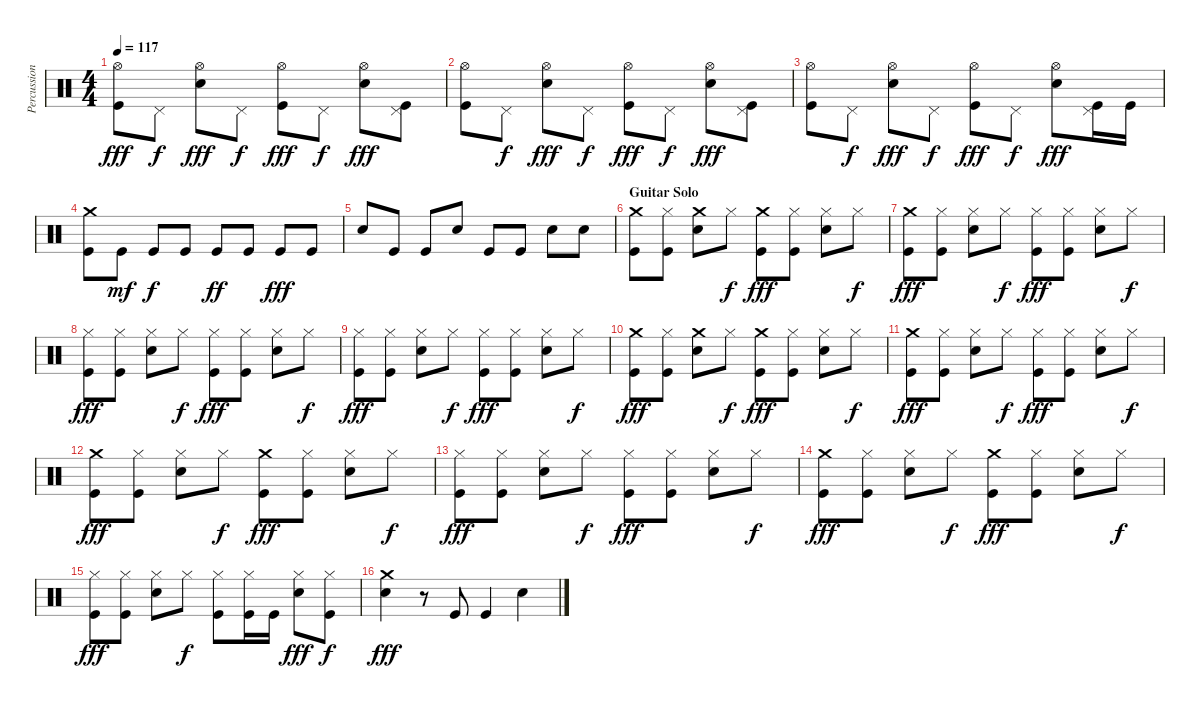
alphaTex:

\track ("Percussion" "Percussion") {instrument percussion}
\staff {score}
\articulation defaults
\ts (4 4)
\tempo 117
\clef neutral
\ks c
("Kick (hit)" "Hi-Hat (open)").8{dy fff} "Pedal Hi-Hat (hit)".8{dy f} ("Snare (hit) 2" "Hi-Hat (open)").8{dy fff} "Pedal Hi-Hat (hit)".8{dy f} ("Kick (hit)" "Hi-Hat (open)").8{dy fff} "Pedal Hi-Hat (hit)".8{dy f} ("Snare (hit) 2" "Hi-Hat (open)").8{dy fff} ("Kick (hit)" "Pedal Hi-Hat (hit)").8 |
("Kick (hit)" "Hi-Hat (open)").8 "Pedal Hi-Hat (hit)".8{dy f} ("Snare (hit) 2" "Hi-Hat (open)").8{dy fff} "Pedal Hi-Hat (hit)".8{dy f} ("Kick (hit)" "Hi-Hat (open)").8{dy fff} "Pedal Hi-Hat (hit)".8{dy f} ("Snare (hit) 2" "Hi-Hat (open)").8{dy fff} ("Kick (hit)" "Pedal Hi-Hat (hit)").8 |
("Kick (hit)" "Hi-Hat (open)").8 "Pedal Hi-Hat (hit)".8{dy f} ("Snare (hit) 2" "Hi-Hat (open)").8{dy fff} "Pedal Hi-Hat (hit)".8{dy f} ("Kick (hit)" "Hi-Hat (open)").8{dy fff} "Pedal Hi-Hat (hit)".8{dy f} ("Snare (hit) 2" "Hi-Hat (open)").8{dy fff} ("Kick (hit)" "Pedal Hi-Hat (hit)").16 "Kick (hit)".16 |
("Kick (hit)" "Crash medium (hit)").8 "Kick (hit)".8{dy mf} "Kick (hit)".8{dy f} "Kick (hit)".8 "Kick (hit)".8{dy ff} "Kick (hit)".8 "Kick (hit)".8{dy fff} "Kick (hit)".8 |
"Snare (hit) 2".8 "Kick (hit)".8 "Kick (hit)".8 "Snare (hit) 2".8 "Kick (hit)".8 "Kick (hit)".8 "Snare (hit) 2".8 "Snare (hit) 2".8 |
\section ("" "Guitar Solo")
("Kick (hit)" "Crash medium (hit)").8 ("Kick (hit)" "Hi-Hat (closed)").8 ("Snare (hit) 2" "Crash medium (hit)").8 "Hi-Hat (closed)".8{dy f} ("Kick (hit)" "Crash medium (hit)").8{dy fff} ("Kick (hit)" "Hi-Hat (closed)").8 ("Snare (hit) 2" "Hi-Hat (closed)").8 "Hi-Hat (closed)".8{dy f} |
("Kick (hit)" "Crash medium (hit)").8{dy fff} ("Kick (hit)" "Hi-Hat (closed)").8 ("Snare (hit) 2" "Hi-Hat (closed)").8 "Hi-Hat (closed)".8{dy f} ("Kick (hit)" "Hi-Hat (closed)").8{dy fff} ("Kick (hit)" "Hi-Hat (closed)").8 ("Snare (hit) 2" "Hi-Hat (closed)").8 "Hi-Hat (closed)".8{dy f} |
("Kick (hit)" "Hi-Hat (closed)").8{dy fff} ("Kick (hit)" "Hi-Hat (closed)").8 ("Snare (hit) 2" "Hi-Hat (closed)").8 "Hi-Hat (closed)".8{dy f} ("Kick (hit)" "Hi-Hat (closed)").8{dy fff} ("Kick (hit)" "Hi-Hat (closed)").8 ("Snare (hit) 2" "Hi-Hat (closed)").8 "Hi-Hat (closed)".8{dy f} |
("Kick (hit)" "Hi-Hat (closed)").8{dy fff} ("Kick (hit)" "Hi-Hat (closed)").8 ("Snare (hit) 2" "Hi-Hat (closed)").8 "Hi-Hat (closed)".8{dy f} ("Kick (hit)" "Hi-Hat (closed)").8{dy fff} ("Kick (hit)" "Hi-Hat (closed)").8 ("Snare (hit) 2" "Hi-Hat (closed)").8 "Hi-Hat (closed)".8{dy f} |
("Kick (hit)" "Crash medium (hit)").8{dy fff} ("Kick (hit)" "Hi-Hat (closed)").8 ("Snare (hit) 2" "Crash medium (hit)").8 "Hi-Hat (closed)".8{dy f} ("Kick (hit)" "Crash medium (hit)").8{dy fff} ("Kick (hit)" "Hi-Hat (closed)").8 ("Snare (hit) 2" "Hi-Hat (closed)").8 "Hi-Hat (closed)".8{dy f} |
("Kick (hit)" "Crash medium (hit)").8{dy fff} ("Kick (hit)" "Hi-Hat (closed)").8 ("Snare (hit) 2" "Hi-Hat (closed)").8 "Hi-Hat (closed)".8{dy f} ("Kick (hit)" "Hi-Hat (closed)").8{dy fff} ("Kick (hit)" "Hi-Hat (closed)").8 ("Snare (hit) 2" "Hi-Hat (closed)").8 "Hi-Hat (closed)".8{dy f} |
("Kick (hit)" "Crash medium (hit)").8{dy fff} ("Kick (hit)" "Hi-Hat (closed)").8 ("Snare (hit) 2" "Hi-Hat (closed)").8 "Hi-Hat (closed)".8{dy f} ("Kick (hit)" "Crash medium (hit)").8{dy fff} ("Kick (hit)" "Hi-Hat (closed)").8 ("Snare (hit) 2" "Hi-Hat (closed)").8 "Hi-Hat (closed)".8{dy f} |
("Kick (hit)" "Hi-Hat (closed)").8{dy fff} ("Kick (hit)" "Hi-Hat (closed)").8 ("Snare (hit) 2" "Hi-Hat (closed)").8 "Hi-Hat (closed)".8{dy f} ("Kick (hit)" "Hi-Hat (closed)").8{dy fff} ("Kick (hit)" "Hi-Hat (closed)").8 ("Snare (hit) 2" "Hi-Hat (closed)").8 "Hi-Hat (closed)".8{dy f} |
("Kick (hit)" "Crash medium (hit)").8{dy fff} ("Kick (hit)" "Hi-Hat (closed)").8 ("Snare (hit) 2" "Hi-Hat (closed)").8 "Hi-Hat (closed)".8{dy f} ("Kick (hit)" "Crash medium (hit)").8{dy fff} ("Kick (hit)" "Hi-Hat (closed)").8 ("Snare (hit) 2" "Hi-Hat (closed)").8 "Hi-Hat (closed)".8{dy f} |
("Kick (hit)" "Hi-Hat (closed)").8{dy fff} ("Kick (hit)" "Hi-Hat (closed)").8 ("Snare (hit) 2" "Hi-Hat (closed)").8 "Hi-Hat (closed)".8{dy f} ("Kick (hit)" "Hi-Hat (closed)").8 ("Kick (hit)" "Hi-Hat (closed)").16 "Kick (hit)".16 ("Snare (hit) 2" "Hi-Hat (closed)").8{dy fff} ("Kick (hit)" "Hi-Hat (closed)").8{dy f} |
("Crash medium (hit)" "Snare (hit) 2").4{dy fff} r.8 "Kick (hit)".8 "Kick (hit)".4 "Snare (hit) 2".4
